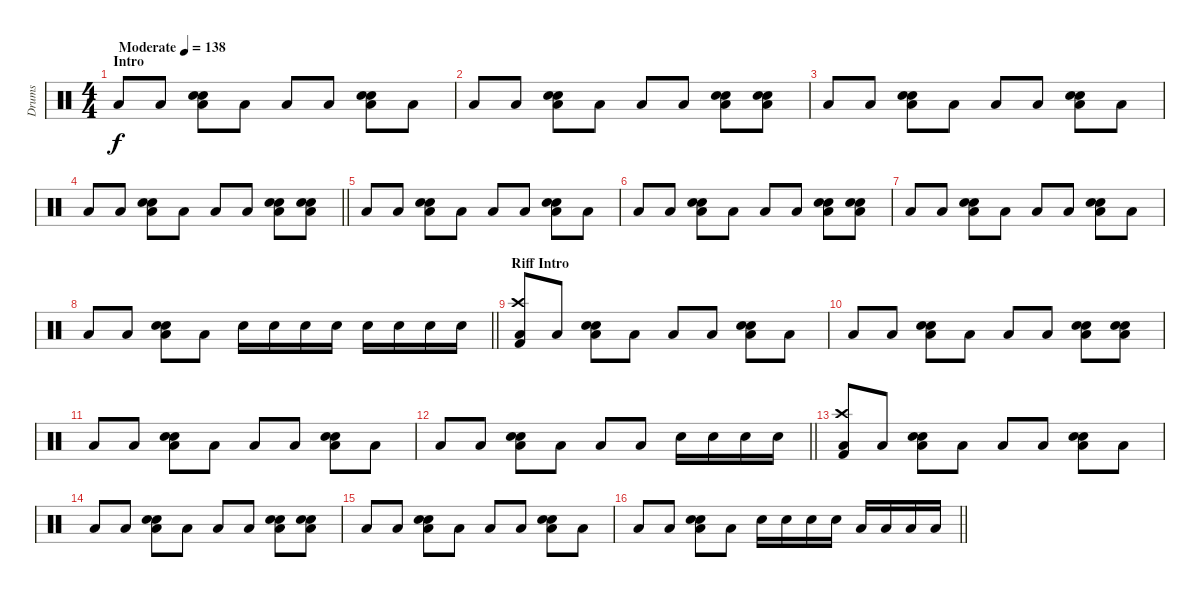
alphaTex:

\track ("Drums" "Drums") {instrument percussion}
\staff {score}
\articulation defaults
\ts (4 4)
\section ("" "Intro")
\tempo (138 "Moderate")
\clef neutral
\ks c "Low Floor Tom (hit)".8{dy f} "Low Floor Tom (hit)".8
("Snare (hit) 2" "Hand Clap (hit)" "Low Floor Tom (hit)").8 "Low Floor Tom (hit)".8 "Low Floor Tom (hit)".8 "Low Floor Tom (hit)".8 ("Snare (hit) 2" "Hand Clap (hit)" "Low Floor Tom (hit)").8 "Low Floor Tom (hit)".8 |
"Low Floor Tom (hit)".8 "Low Floor Tom (hit)".8 ("Snare (hit) 2" "Hand Clap (hit)" "Low Floor Tom (hit)").8 "Low Floor Tom (hit)".8 "Low Floor Tom (hit)".8 "Low Floor Tom (hit)".8 ("Snare (hit) 2" "Hand Clap (hit)" "Low Floor Tom (hit)").8 ("Snare (hit) 2" "Hand Clap (hit)" "Low Floor Tom (hit)").8 |
"Low Floor Tom (hit)".8 "Low Floor Tom (hit)".8 ("Snare (hit) 2" "Hand Clap (hit)" "Low Floor Tom (hit)").8 "Low Floor Tom (hit)".8 "Low Floor Tom (hit)".8 "Low Floor Tom (hit)".8 ("Snare (hit) 2" "Hand Clap (hit)" "Low Floor Tom (hit)").8 "Low Floor Tom (hit)".8 |
\barLineRight lightlight "Low Floor Tom (hit)".8 "Low Floor Tom (hit)".8
("Snare (hit) 2" "Hand Clap (hit)" "Low Floor Tom (hit)").8 "Low Floor Tom (hit)".8 "Low Floor Tom (hit)".8 "Low Floor Tom (hit)".8 ("Snare (hit) 2" "Hand Clap (hit)" "Low Floor Tom (hit)").8 ("Snare (hit) 2" "Hand Clap (hit)" "Low Floor Tom (hit)").8 |
"Low Floor Tom (hit)".8 "Low Floor Tom (hit)".8 ("Snare (hit) 2" "Hand Clap (hit)" "Low Floor Tom (hit)").8 "Low Floor Tom (hit)".8 "Low Floor Tom (hit)".8 "Low Floor Tom (hit)".8 ("Snare (hit) 2" "Hand Clap (hit)" "Low Floor Tom (hit)").8 "Low Floor Tom (hit)".8 |
"Low Floor Tom (hit)".8 "Low Floor Tom (hit)".8 ("Snare (hit) 2" "Hand Clap (hit)" "Low Floor Tom (hit)").8 "Low Floor Tom (hit)".8 "Low Floor Tom (hit)".8 "Low Floor Tom (hit)".8 ("Snare (hit) 2" "Hand Clap (hit)" "Low Floor Tom (hit)").8 ("Snare (hit) 2" "Hand Clap (hit)" "Low Floor Tom (hit)").8 |
"Low Floor Tom (hit)".8 "Low Floor Tom (hit)".8 ("Snare (hit) 2" "Hand Clap (hit)" "Low Floor Tom (hit)").8 "Low Floor Tom (hit)".8 "Low Floor Tom (hit)".8 "Low Floor Tom (hit)".8 ("Snare (hit) 2" "Hand Clap (hit)" "Low Floor Tom (hit)").8 "Low Floor Tom (hit)".8 |
\barLineRight lightlight "Low Floor Tom (hit)".8 "Low Floor Tom (hit)".8
("Snare (hit) 2" "Hand Clap (hit)" "Low Floor Tom (hit)").8 "Low Floor Tom (hit)".8 "Snare (hit) 2".16 "Snare (hit) 2".16 "Snare (hit) 2".16 "Snare (hit) 2".16 "Snare (hit) 2".16 "Snare (hit) 2".16 "Snare (hit) 2".16 "Snare (hit) 2".16 |
\section ("" "Riff Intro")
("Crash high (hit)" "Low Floor Tom (hit)" "Kick (hit) 2").8 "Low Floor Tom (hit)".8 ("Snare (hit) 2" "Hand Clap (hit)" "Low Floor Tom (hit)").8 "Low Floor Tom (hit)".8 "Low Floor Tom (hit)".8 "Low Floor Tom (hit)".8 ("Snare (hit) 2" "Hand Clap (hit)" "Low Floor Tom (hit)").8 "Low Floor Tom (hit)".8 |
"Low Floor Tom (hit)".8 "Low Floor Tom (hit)".8 ("Snare (hit) 2" "Hand Clap (hit)" "Low Floor Tom (hit)").8 "Low Floor Tom (hit)".8 "Low Floor Tom (hit)".8 "Low Floor Tom (hit)".8 ("Snare (hit) 2" "Hand Clap (hit)" "Low Floor Tom (hit)").8 ("Snare (hit) 2" "Hand Clap (hit)" "Low Floor Tom (hit)").8 |
"Low Floor Tom (hit)".8 "Low Floor Tom (hit)".8 ("Snare (hit) 2" "Hand Clap (hit)" "Low Floor Tom (hit)").8 "Low Floor Tom (hit)".8 "Low Floor Tom (hit)".8 "Low Floor Tom (hit)".8 ("Snare (hit) 2" "Hand Clap (hit)" "Low Floor Tom (hit)").8 "Low Floor Tom (hit)".8 |
\barLineRight lightlight "Low Floor Tom (hit)".8 "Low Floor Tom (hit)".8
("Snare (hit) 2" "Hand Clap (hit)" "Low Floor Tom (hit)").8 "Low Floor Tom (hit)".8 "Low Floor Tom (hit)".8 "Low Floor Tom (hit)".8 "Snare (hit) 2".16 "Snare (hit) 2".16 "Snare (hit) 2".16 "Snare (hit) 2".16 |
("Crash high (hit)" "Low Floor Tom (hit)" "Kick (hit) 2").8 "Low Floor Tom (hit)".8 ("Snare (hit) 2" "Hand Clap (hit)" "Low Floor Tom (hit)").8 "Low Floor Tom (hit)".8 "Low Floor Tom (hit)".8 "Low Floor Tom (hit)".8 ("Snare (hit) 2" "Hand Clap (hit)" "Low Floor Tom (hit)").8 "Low Floor Tom (hit)".8 |
"Low Floor Tom (hit)".8 "Low Floor Tom (hit)".8 ("Snare (hit) 2" "Hand Clap (hit)" "Low Floor Tom (hit)").8 "Low Floor Tom (hit)".8 "Low Floor Tom (hit)".8 "Low Floor Tom (hit)".8 ("Snare (hit) 2" "Hand Clap (hit)" "Low Floor Tom (hit)").8 ("Snare (hit) 2" "Hand Clap (hit)" "Low Floor Tom (hit)").8 |
"Low Floor Tom (hit)".8 "Low Floor Tom (hit)".8 ("Snare (hit) 2" "Hand Clap (hit)" "Low Floor Tom (hit)").8 "Low Floor Tom (hit)".8 "Low Floor Tom (hit)".8 "Low Floor Tom (hit)".8 ("Snare (hit) 2" "Hand Clap (hit)" "Low Floor Tom (hit)").8 "Low Floor Tom (hit)".8 |
\barLineRight lightlight "Low Floor Tom (hit)".8 "Low Floor Tom (hit)".8
("Snare (hit) 2" "Hand Clap (hit)" "Low Floor Tom (hit)").8 "Low Floor Tom (hit)".8 "Snare (hit) 2".16 "Snare (hit) 2".16 "Snare (hit) 2".16 "Snare (hit) 2".16 "Low Tom (hit)".16 "Low Tom (hit)".16 "Low Tom (hit)".16 "Low Tom (hit)".16
